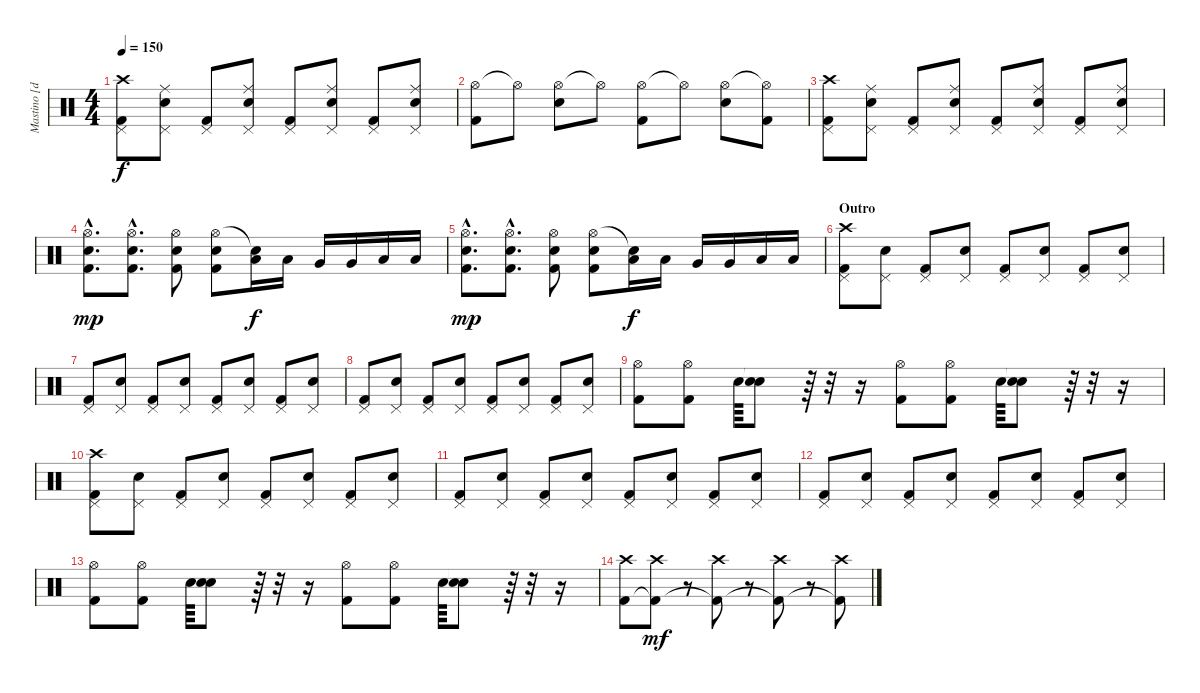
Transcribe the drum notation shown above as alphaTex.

\track ("Mastino [drums]" "Mastino [d") {instrument percussion}
\staff {score}
\articulation defaults
\ts (4 4)
\tempo 150
\clef neutral
\ks c
("Crash high (hit)" "Pedal Hi-Hat (hit)" "Kick (hit) 2").8{dy f} ("Ride (middle)" "Pedal Hi-Hat (hit)" "Electric Snare (hit)").8 ("Pedal Hi-Hat (hit)" "Kick (hit) 2").8 ("Ride (middle)" "Pedal Hi-Hat (hit)" "Electric Snare (hit)").8 ("Pedal Hi-Hat (hit)" "Kick (hit) 2").8 ("Ride (middle)" "Pedal Hi-Hat (hit)" "Electric Snare (hit)").8 ("Pedal Hi-Hat (hit)" "Kick (hit) 2").8 ("Ride (middle)" "Pedal Hi-Hat (hit)" "Electric Snare (hit)").8 |
("Hi-Hat (open)" "Kick (hit) 2").8 "Hi-Hat (open)"{t}.8 ("Hi-Hat (open)" "Electric Snare (hit)").8 "Hi-Hat (open)"{t}.8 ("Hi-Hat (open)" "Kick (hit) 2").8 "Hi-Hat (open)"{t}.8 ("Hi-Hat (open)" "Electric Snare (hit)").8 ("Hi-Hat (open)"{t} "Kick (hit) 2").8 |
("Crash high (hit)" "Pedal Hi-Hat (hit)" "Kick (hit) 2").8 ("Ride (middle)" "Pedal Hi-Hat (hit)" "Electric Snare (hit)").8 ("Pedal Hi-Hat (hit)" "Kick (hit) 2").8 ("Ride (middle)" "Pedal Hi-Hat (hit)" "Electric Snare (hit)").8 ("Pedal Hi-Hat (hit)" "Kick (hit) 2").8 ("Ride (middle)" "Pedal Hi-Hat (hit)" "Electric Snare (hit)").8 ("Pedal Hi-Hat (hit)" "Kick (hit) 2").8 ("Ride (middle)" "Pedal Hi-Hat (hit)" "Electric Snare (hit)").8 |
("Hi-Hat (open)"{hac} "Electric Snare (hit)"{hac} "Kick (hit) 2"{hac}).8{d dy mp} ("Hi-Hat (open)"{hac} "Electric Snare (hit)"{hac} "Kick (hit) 2"{hac}).8{d} ("Hi-Hat (open)" "Electric Snare (hit)" "Kick (hit) 2").8 ("Hi-Hat (open)" "Kick (hit) 2" "Electric Snare (hit)").8 ("Snare (hit)"{t} "Low Tom (hit)").16{dy f} "Low Tom (hit)".16 "Very Low Tom (hit)".16 "Very Low Tom (hit)".16 "Low Floor Tom (hit)".16 "Low Floor Tom (hit)".16 |
("Hi-Hat (open)"{hac} "Electric Snare (hit)"{hac} "Kick (hit) 2"{hac}).8{d dy mp} ("Hi-Hat (open)"{hac} "Electric Snare (hit)"{hac} "Kick (hit) 2"{hac}).8{d} ("Hi-Hat (open)" "Electric Snare (hit)" "Kick (hit) 2").8 ("Hi-Hat (open)" "Kick (hit) 2" "Electric Snare (hit)").8 ("Snare (hit)"{t} "Low Tom (hit)").16{dy f} "Low Tom (hit)".16 "Very Low Tom (hit)".16 "Very Low Tom (hit)".16 "Low Floor Tom (hit)".16 "Low Floor Tom (hit)".16 |
\section ("" "Outro")
("Crash high (hit)" "Pedal Hi-Hat (hit)" "Kick (hit) 2").8 ("Pedal Hi-Hat (hit)" "Electric Snare (hit)").8 ("Pedal Hi-Hat (hit)" "Kick (hit) 2").8 ("Pedal Hi-Hat (hit)" "Electric Snare (hit)").8 ("Pedal Hi-Hat (hit)" "Kick (hit) 2").8 ("Pedal Hi-Hat (hit)" "Electric Snare (hit)").8 ("Pedal Hi-Hat (hit)" "Kick (hit) 2").8 ("Pedal Hi-Hat (hit)" "Electric Snare (hit)").8 |
("Pedal Hi-Hat (hit)" "Kick (hit) 2").8 ("Pedal Hi-Hat (hit)" "Electric Snare (hit)").8 ("Pedal Hi-Hat (hit)" "Kick (hit) 2").8 ("Pedal Hi-Hat (hit)" "Electric Snare (hit)").8 ("Pedal Hi-Hat (hit)" "Kick (hit) 2").8 ("Pedal Hi-Hat (hit)" "Electric Snare (hit)").8 ("Pedal Hi-Hat (hit)" "Kick (hit) 2").8 ("Pedal Hi-Hat (hit)" "Electric Snare (hit)").8 |
("Pedal Hi-Hat (hit)" "Kick (hit) 2").8 ("Pedal Hi-Hat (hit)" "Electric Snare (hit)").8 ("Pedal Hi-Hat (hit)" "Kick (hit) 2").8 ("Pedal Hi-Hat (hit)" "Electric Snare (hit)").8 ("Pedal Hi-Hat (hit)" "Kick (hit) 2").8 ("Pedal Hi-Hat (hit)" "Electric Snare (hit)").8 ("Pedal Hi-Hat (hit)" "Kick (hit) 2").8 ("Pedal Hi-Hat (hit)" "Electric Snare (hit)").8 |
("Hi-Hat (open)" "Kick (hit) 2").8 ("Hi-Hat (open)" "Kick (hit) 2").8 "Electric Snare (hit)".64 ("Snare (hit)"{t} "Electric Snare (hit)").8 r.64 r.32 r.16 ("Hi-Hat (open)" "Kick (hit) 2").8 ("Hi-Hat (open)" "Kick (hit) 2").8 "Electric Snare (hit)".64 ("Snare (hit)"{t} "Electric Snare (hit)").8 r.64 r.32 r.16 |
("Crash high (hit)" "Pedal Hi-Hat (hit)" "Kick (hit) 2").8 ("Pedal Hi-Hat (hit)" "Electric Snare (hit)").8 ("Pedal Hi-Hat (hit)" "Kick (hit) 2").8 ("Pedal Hi-Hat (hit)" "Electric Snare (hit)").8 ("Pedal Hi-Hat (hit)" "Kick (hit) 2").8 ("Pedal Hi-Hat (hit)" "Electric Snare (hit)").8 ("Pedal Hi-Hat (hit)" "Kick (hit) 2").8 ("Pedal Hi-Hat (hit)" "Electric Snare (hit)").8 |
("Pedal Hi-Hat (hit)" "Kick (hit) 2").8 ("Pedal Hi-Hat (hit)" "Electric Snare (hit)").8 ("Pedal Hi-Hat (hit)" "Kick (hit) 2").8 ("Pedal Hi-Hat (hit)" "Electric Snare (hit)").8 ("Pedal Hi-Hat (hit)" "Kick (hit) 2").8 ("Pedal Hi-Hat (hit)" "Electric Snare (hit)").8 ("Pedal Hi-Hat (hit)" "Kick (hit) 2").8 ("Pedal Hi-Hat (hit)" "Electric Snare (hit)").8 |
("Pedal Hi-Hat (hit)" "Kick (hit) 2").8 ("Pedal Hi-Hat (hit)" "Electric Snare (hit)").8 ("Pedal Hi-Hat (hit)" "Kick (hit) 2").8 ("Pedal Hi-Hat (hit)" "Electric Snare (hit)").8 ("Pedal Hi-Hat (hit)" "Kick (hit) 2").8 ("Pedal Hi-Hat (hit)" "Electric Snare (hit)").8 ("Pedal Hi-Hat (hit)" "Kick (hit) 2").8 ("Pedal Hi-Hat (hit)" "Electric Snare (hit)").8 |
("Hi-Hat (open)" "Kick (hit) 2").8 ("Hi-Hat (open)" "Kick (hit) 2").8 "Electric Snare (hit)".64 ("Snare (hit)"{t} "Electric Snare (hit)").8 r.64 r.32 r.16 ("Hi-Hat (open)" "Kick (hit) 2").8 ("Hi-Hat (open)" "Kick (hit) 2").8 "Electric Snare (hit)".64 ("Snare (hit)"{t} "Electric Snare (hit)").8 r.64 r.32 r.16 |
("Crash high (hit)" "Kick (hit) 2").8 ("Crash high (hit)" "Kick (hit) 2"{t}).8{dy mf} r.8 ("Crash high (hit)" "Kick (hit) 2"{t}).8 r.8 ("Crash high (hit)" "Kick (hit) 2"{t}).8 r.8 ("Crash high (hit)" "Kick (hit) 2"{t}).8
